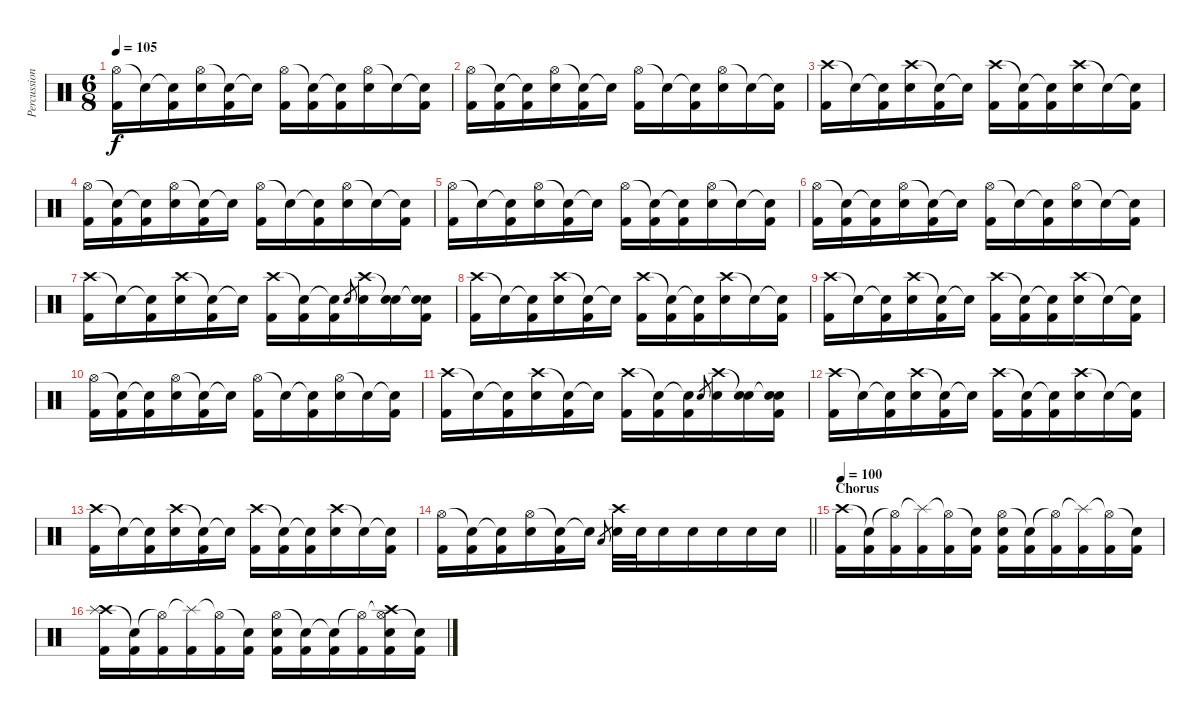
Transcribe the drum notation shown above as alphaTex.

\track ("Percussion" "Percussion") {instrument percussion}
\staff {score}
\articulation defaults
\ts (6 8)
\tempo 105
\clef neutral
\ks c
("Hi-Hat (open)" "Kick (hit) 2").16{dy f} "Snare (hit)"{t}.16 ("Snare (hit)"{t} "Kick (hit) 2").16 ("Hi-Hat (open)" "Electric Snare (hit)").16 ("Snare (hit)"{t} "Kick (hit) 2").16 "Snare (hit)"{t}.16 ("Hi-Hat (open)" "Kick (hit) 2").16 ("Snare (hit)"{t} "Kick (hit) 2").16 ("Snare (hit)"{t} "Kick (hit) 2").16 ("Hi-Hat (open)" "Electric Snare (hit)").16 "Snare (hit)"{t}.16 ("Snare (hit)"{t} "Kick (hit) 2").16 |
("Hi-Hat (open)" "Kick (hit) 2").16 ("Snare (hit)"{t} "Kick (hit) 2").16 ("Snare (hit)"{t} "Kick (hit) 2").16 ("Hi-Hat (open)" "Electric Snare (hit)").16 ("Snare (hit)"{t} "Kick (hit) 2").16 "Snare (hit)"{t}.16 ("Hi-Hat (open)" "Kick (hit) 2").16 "Snare (hit)"{t}.16 ("Snare (hit)"{t} "Kick (hit) 2").16 ("Hi-Hat (open)" "Electric Snare (hit)").16 "Snare (hit)"{t}.16 ("Snare (hit)"{t} "Kick (hit) 2").16 |
("Crash high (hit)" "Kick (hit) 2").16 "Snare (hit)"{t}.16 ("Snare (hit)"{t} "Kick (hit) 2").16 ("Crash high (hit)" "Electric Snare (hit)").16 ("Snare (hit)"{t} "Kick (hit) 2").16 "Snare (hit)"{t}.16 ("Crash high (hit)" "Kick (hit) 2").16 ("Snare (hit)"{t} "Kick (hit) 2").16 ("Snare (hit)"{t} "Kick (hit) 2").16 ("Crash high (hit)" "Electric Snare (hit)").16 "Snare (hit)"{t}.16 ("Snare (hit)"{t} "Kick (hit) 2").16 |
("Hi-Hat (open)" "Kick (hit) 2").16 ("Snare (hit)"{t} "Kick (hit) 2").16 ("Snare (hit)"{t} "Kick (hit) 2").16 ("Hi-Hat (open)" "Electric Snare (hit)").16 ("Snare (hit)"{t} "Kick (hit) 2").16 "Snare (hit)"{t}.16 ("Hi-Hat (open)" "Kick (hit) 2").16 "Snare (hit)"{t}.16 ("Snare (hit)"{t} "Kick (hit) 2").16 ("Hi-Hat (open)" "Electric Snare (hit)").16 "Snare (hit)"{t}.16 ("Snare (hit)"{t} "Kick (hit) 2").16 |
("Hi-Hat (open)" "Kick (hit) 2").16 "Snare (hit)"{t}.16 ("Snare (hit)"{t} "Kick (hit) 2").16 ("Hi-Hat (open)" "Electric Snare (hit)").16 ("Snare (hit)"{t} "Kick (hit) 2").16 "Snare (hit)"{t}.16 ("Hi-Hat (open)" "Kick (hit) 2").16 ("Snare (hit)"{t} "Kick (hit) 2").16 ("Snare (hit)"{t} "Kick (hit) 2").16 ("Hi-Hat (open)" "Electric Snare (hit)").16 "Snare (hit)"{t}.16 ("Snare (hit)"{t} "Kick (hit) 2").16 |
("Hi-Hat (open)" "Kick (hit) 2").16 ("Snare (hit)"{t} "Kick (hit) 2").16 ("Snare (hit)"{t} "Kick (hit) 2").16 ("Hi-Hat (open)" "Electric Snare (hit)").16 ("Snare (hit)"{t} "Kick (hit) 2").16 "Snare (hit)"{t}.16 ("Hi-Hat (open)" "Kick (hit) 2").16 "Snare (hit)"{t}.16 ("Snare (hit)"{t} "Kick (hit) 2").16 ("Hi-Hat (open)" "Electric Snare (hit)").16 "Snare (hit)"{t}.16 ("Snare (hit)"{t} "Kick (hit) 2").16 |
("Crash high (hit)" "Kick (hit) 2").16 "Snare (hit)"{t}.16 ("Snare (hit)"{t} "Kick (hit) 2").16 ("Crash high (hit)" "Electric Snare (hit)").16 ("Snare (hit)"{t} "Kick (hit) 2").16 "Snare (hit)"{t}.16 ("Crash high (hit)" "Kick (hit) 2").16 ("Snare (hit)"{t} "Kick (hit) 2").16 ("Snare (hit)"{t} "Kick (hit) 2").16 "Electric Snare (hit)".8{gr} ("Crash high (hit)" "Electric Snare (hit)").16 ("Snare (hit)"{t} "Electric Snare (hit)").16 ("Snare (hit)"{t} "Electric Snare (hit)" "Kick (hit) 2").16 |
("Crash high (hit)" "Kick (hit) 2").16 "Snare (hit)"{t}.16 ("Snare (hit)"{t} "Kick (hit) 2").16 ("Crash high (hit)" "Electric Snare (hit)").16 ("Snare (hit)"{t} "Kick (hit) 2").16 "Snare (hit)"{t}.16 ("Crash high (hit)" "Kick (hit) 2").16 ("Snare (hit)"{t} "Kick (hit) 2").16 ("Snare (hit)"{t} "Kick (hit) 2").16 ("Crash high (hit)" "Electric Snare (hit)").16 "Snare (hit)"{t}.16 ("Snare (hit)"{t} "Kick (hit) 2").16 |
("Crash high (hit)" "Kick (hit) 2").16 "Snare (hit)"{t}.16 ("Snare (hit)"{t} "Kick (hit) 2").16 ("Crash high (hit)" "Electric Snare (hit)").16 ("Snare (hit)"{t} "Kick (hit) 2").16 "Snare (hit)"{t}.16 ("Crash high (hit)" "Kick (hit) 2").16 ("Snare (hit)"{t} "Kick (hit) 2").16 ("Snare (hit)"{t} "Kick (hit) 2").16 ("Crash high (hit)" "Electric Snare (hit)").16 "Snare (hit)"{t}.16 ("Snare (hit)"{t} "Kick (hit) 2").16 |
("Hi-Hat (open)" "Kick (hit) 2").16 ("Snare (hit)"{t} "Kick (hit) 2").16 ("Snare (hit)"{t} "Kick (hit) 2").16 ("Hi-Hat (open)" "Electric Snare (hit)").16 ("Snare (hit)"{t} "Kick (hit) 2").16 "Snare (hit)"{t}.16 ("Hi-Hat (open)" "Kick (hit) 2").16 "Snare (hit)"{t}.16 ("Snare (hit)"{t} "Kick (hit) 2").16 ("Hi-Hat (open)" "Electric Snare (hit)").16 "Snare (hit)"{t}.16 ("Snare (hit)"{t} "Kick (hit) 2").16 |
("Crash high (hit)" "Kick (hit) 2").16 "Snare (hit)"{t}.16 ("Snare (hit)"{t} "Kick (hit) 2").16 ("Crash high (hit)" "Electric Snare (hit)").16 ("Snare (hit)"{t} "Kick (hit) 2").16 "Snare (hit)"{t}.16 ("Crash high (hit)" "Kick (hit) 2").16 ("Snare (hit)"{t} "Kick (hit) 2").16 ("Snare (hit)"{t} "Kick (hit) 2").16 "Electric Snare (hit)".8{gr} ("Crash high (hit)" "Electric Snare (hit)").16 ("Snare (hit)"{t} "Electric Snare (hit)").16 ("Snare (hit)"{t} "Electric Snare (hit)" "Kick (hit) 2").16 |
("Crash high (hit)" "Kick (hit) 2").16 "Snare (hit)"{t}.16 ("Snare (hit)"{t} "Kick (hit) 2").16 ("Crash high (hit)" "Electric Snare (hit)").16 ("Snare (hit)"{t} "Kick (hit) 2").16 "Snare (hit)"{t}.16 ("Crash high (hit)" "Kick (hit) 2").16 ("Snare (hit)"{t} "Kick (hit) 2").16 ("Snare (hit)"{t} "Kick (hit) 2").16 ("Crash high (hit)" "Electric Snare (hit)").16 "Snare (hit)"{t}.16 ("Snare (hit)"{t} "Kick (hit) 2").16 |
("Crash high (hit)" "Kick (hit) 2").16 "Snare (hit)"{t}.16 ("Snare (hit)"{t} "Kick (hit) 2").16 ("Crash high (hit)" "Electric Snare (hit)").16 ("Snare (hit)"{t} "Kick (hit) 2").16 "Snare (hit)"{t}.16 ("Crash high (hit)" "Kick (hit) 2").16 ("Snare (hit)"{t} "Kick (hit) 2").16 ("Snare (hit)"{t} "Kick (hit) 2").16 ("Crash high (hit)" "Electric Snare (hit)").16 "Snare (hit)"{t}.16 ("Snare (hit)"{t} "Kick (hit) 2").16 |
\barLineRight lightlight
("Hi-Hat (open)" "Kick (hit) 2").16 ("Snare (hit)"{t} "Kick (hit) 2").16 ("Snare (hit)"{t} "Kick (hit) 2").16 ("Hi-Hat (open)" "Electric Snare (hit)").16 ("Snare (hit)"{t} "Kick (hit) 2").16 "Snare (hit)"{t}.16 "Low Tom (hit)".8{gr} ("Crash high (hit)" "Electric Snare (hit)").32 "Electric Snare (hit)".32 "Electric Snare (hit)".16 "Electric Snare (hit)".16 "Electric Snare (hit)".16 "Electric Snare (hit)".16 "Electric Snare (hit)".16 |
\section ("" "Chorus")
\tempo 100
("Crash high (hit)" "Kick (hit) 2").16 ("Snare (hit)"{t} "Kick (hit) 2").16 ("Hi-Hat (open)"{t} "Kick (hit) 2").16 ("Splash (hit)"{t} "Kick (hit) 2").16 ("Hi-Hat (open)"{t} "Kick (hit) 2").16 ("Snare (hit)"{t} "Kick (hit) 2").16 ("Hi-Hat (open)" "Electric Snare (hit)" "Kick (hit) 2").16 ("Snare (hit)"{t} "Kick (hit) 2").16 ("Hi-Hat (open)"{t} "Kick (hit) 2").16 ("Splash (hit)"{t} "Kick (hit) 2").16 ("Hi-Hat (open)"{t} "Kick (hit) 2").16 ("Snare (hit)"{t} "Kick (hit) 2").16 |
("Crash high (hit)" "Splash (hit)" "Kick (hit) 2").16 ("Snare (hit)"{t} "Kick (hit) 2").16 ("Hi-Hat (open)"{t} "Kick (hit) 2").16 ("Splash (hit)"{t} "Kick (hit) 2").16 ("Hi-Hat (open)"{t} "Kick (hit) 2").16 ("Snare (hit)"{t} "Kick (hit) 2").16 ("Hi-Hat (open)" "Electric Snare (hit)" "Kick (hit) 2").16 ("Snare (hit)"{t} "Kick (hit) 2").16 ("Snare (hit)"{t} "Kick (hit) 2").16 ("Hi-Hat (open)"{t} "Kick (hit) 2").16 ("Hi-Hat (open)"{t} "Crash high (hit)" "Electric Snare (hit)" "Kick (hit) 2").16 ("Snare (hit)"{t} "Kick (hit) 2").16
